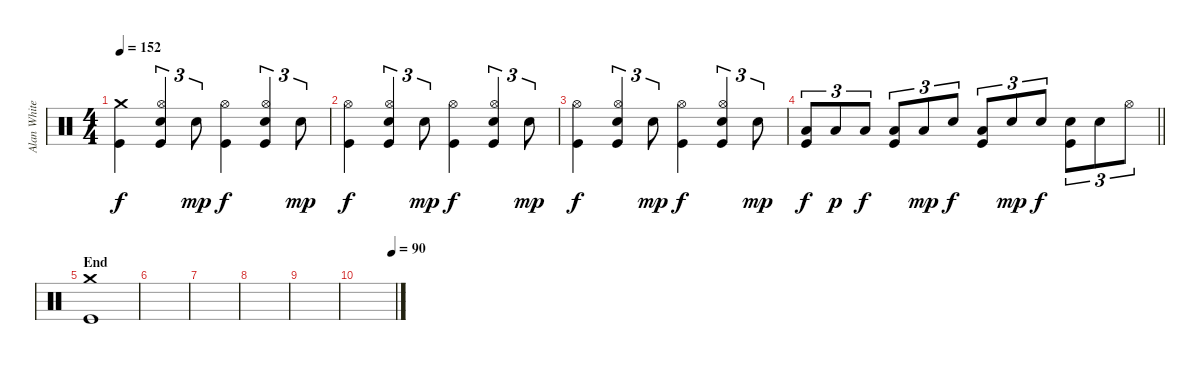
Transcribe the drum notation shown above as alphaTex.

\track ("Alan White" "Alan White") {instrument percussion}
\staff {score}
\articulation defaults
\ts (4 4)
\tempo 152
\clef neutral
\ks c
("Crash medium (hit)" "Kick (hit)").4{dy f} ("Hi-Hat (open)" "Electric Snare (hit)" "Kick (hit)").4{tu (3 2)} "Electric Snare (hit)".8{tu (3 2) dy mp} ("Hi-Hat (open)" "Kick (hit)").4{dy f} ("Hi-Hat (open)" "Electric Snare (hit)" "Kick (hit)").4{tu (3 2)} "Electric Snare (hit)".8{tu (3 2) dy mp} |
("Hi-Hat (open)" "Kick (hit)").4{dy f} ("Hi-Hat (open)" "Electric Snare (hit)" "Kick (hit)").4{tu (3 2)} "Electric Snare (hit)".8{tu (3 2) dy mp} ("Hi-Hat (open)" "Kick (hit)").4{dy f} ("Hi-Hat (open)" "Electric Snare (hit)" "Kick (hit)").4{tu (3 2)} "Electric Snare (hit)".8{tu (3 2) dy mp} |
("Hi-Hat (open)" "Kick (hit)").4{dy f} ("Hi-Hat (open)" "Electric Snare (hit)" "Kick (hit)").4{tu (3 2)} "Electric Snare (hit)".8{tu (3 2) dy mp} ("Hi-Hat (open)" "Kick (hit)").4{dy f} ("Hi-Hat (open)" "Electric Snare (hit)" "Kick (hit)").4{tu (3 2)} "Electric Snare (hit)".8{tu (3 2) dy mp} |
\barLineRight lightlight
("Low Tom (hit)" "Kick (hit)").8{tu (3 2) dy f} "Low Tom (hit)".8{tu (3 2) dy p} "Low Tom (hit)".8{tu (3 2) dy f} ("Low Tom (hit)" "Kick (hit)").8{tu (3 2)} "Low Tom (hit)".8{tu (3 2) dy mp} "Electric Snare (hit)".8{tu (3 2) dy f} ("Low Floor Tom (hit)" "Kick (hit)").8{tu (3 2)} "Electric Snare (hit)".8{tu (3 2) dy mp} "Electric Snare (hit)".8{tu (3 2) dy f} ("Electric Snare (hit)" "Kick (hit)").8{tu (3 2)} "Electric Snare (hit)".8{tu (3 2)} "Hi-Hat (open)".8{tu (3 2)} |
\section ("" "End")
("Crash medium (hit)" "Kick (hit)").1 |
|
|
|
|
\tempo (90 0.9166666666666666)
